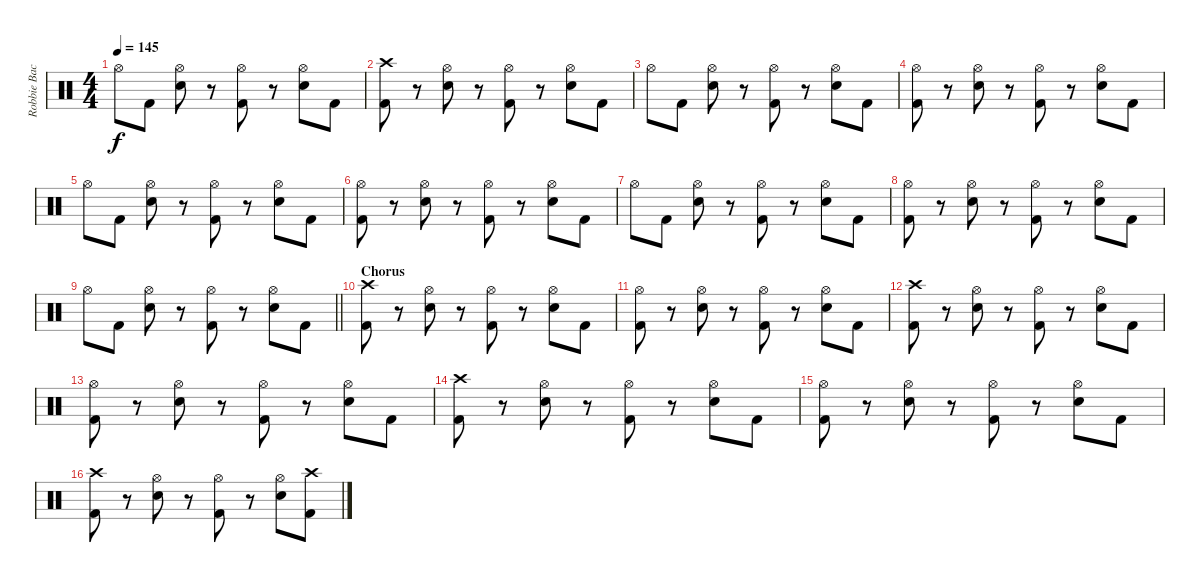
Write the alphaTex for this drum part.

\track ("Robbie Bachman" "Robbie Bac") {instrument percussion}
\staff {score}
\articulation defaults
\ts (4 4)
\tempo 145
\clef neutral
\ks c "Hi-Hat (open)".8{dy f} "Kick (hit) 2".8
("Hi-Hat (open)" "Snare (hit) 2").8 r.8 ("Hi-Hat (open)" "Kick (hit) 2").8 r.8 ("Hi-Hat (open)" "Snare (hit) 2").8 "Kick (hit) 2".8 |
("Crash high (hit)" "Kick (hit) 2").8 r.8 ("Hi-Hat (open)" "Snare (hit) 2").8 r.8 ("Hi-Hat (open)" "Kick (hit) 2").8 r.8 ("Hi-Hat (open)" "Snare (hit) 2").8 "Kick (hit) 2".8 |
"Hi-Hat (open)".8 "Kick (hit) 2".8 ("Hi-Hat (open)" "Snare (hit) 2").8 r.8 ("Hi-Hat (open)" "Kick (hit) 2").8 r.8 ("Hi-Hat (open)" "Snare (hit) 2").8 "Kick (hit) 2".8 |
("Hi-Hat (open)" "Kick (hit) 2").8 r.8 ("Hi-Hat (open)" "Snare (hit) 2").8 r.8 ("Hi-Hat (open)" "Kick (hit) 2").8 r.8 ("Hi-Hat (open)" "Snare (hit) 2").8 "Kick (hit) 2".8 |
"Hi-Hat (open)".8 "Kick (hit) 2".8 ("Hi-Hat (open)" "Snare (hit) 2").8 r.8 ("Hi-Hat (open)" "Kick (hit) 2").8 r.8 ("Hi-Hat (open)" "Snare (hit) 2").8 "Kick (hit) 2".8 |
("Hi-Hat (open)" "Kick (hit) 2").8 r.8 ("Hi-Hat (open)" "Snare (hit) 2").8 r.8 ("Hi-Hat (open)" "Kick (hit) 2").8 r.8 ("Hi-Hat (open)" "Snare (hit) 2").8 "Kick (hit) 2".8 |
"Hi-Hat (open)".8 "Kick (hit) 2".8 ("Hi-Hat (open)" "Snare (hit) 2").8 r.8 ("Hi-Hat (open)" "Kick (hit) 2").8 r.8 ("Hi-Hat (open)" "Snare (hit) 2").8 "Kick (hit) 2".8 |
("Hi-Hat (open)" "Kick (hit) 2").8 r.8 ("Hi-Hat (open)" "Snare (hit) 2").8 r.8 ("Hi-Hat (open)" "Kick (hit) 2").8 r.8 ("Hi-Hat (open)" "Snare (hit) 2").8 "Kick (hit) 2".8 |
\barLineRight lightlight "Hi-Hat (open)".8 "Kick (hit) 2".8
("Hi-Hat (open)" "Snare (hit) 2").8 r.8 ("Hi-Hat (open)" "Kick (hit) 2").8 r.8 ("Hi-Hat (open)" "Snare (hit) 2").8 "Kick (hit) 2".8 |
\section ("" "Chorus")
("Crash high (hit)" "Kick (hit) 2").8 r.8 ("Hi-Hat (open)" "Snare (hit) 2").8 r.8 ("Hi-Hat (open)" "Kick (hit) 2").8 r.8 ("Hi-Hat (open)" "Snare (hit) 2").8 "Kick (hit) 2".8 |
("Hi-Hat (open)" "Kick (hit) 2").8 r.8 ("Hi-Hat (open)" "Snare (hit) 2").8 r.8 ("Hi-Hat (open)" "Kick (hit) 2").8 r.8 ("Hi-Hat (open)" "Snare (hit) 2").8 "Kick (hit) 2".8 |
("Crash high (hit)" "Kick (hit) 2").8 r.8 ("Hi-Hat (open)" "Snare (hit) 2").8 r.8 ("Hi-Hat (open)" "Kick (hit) 2").8 r.8 ("Hi-Hat (open)" "Snare (hit) 2").8 "Kick (hit) 2".8 |
("Hi-Hat (open)" "Kick (hit) 2").8 r.8 ("Hi-Hat (open)" "Snare (hit) 2").8 r.8 ("Hi-Hat (open)" "Kick (hit) 2").8 r.8 ("Hi-Hat (open)" "Snare (hit) 2").8 "Kick (hit) 2".8 |
("Crash high (hit)" "Kick (hit) 2").8 r.8 ("Hi-Hat (open)" "Snare (hit) 2").8 r.8 ("Hi-Hat (open)" "Kick (hit) 2").8 r.8 ("Hi-Hat (open)" "Snare (hit) 2").8 "Kick (hit) 2".8 |
("Hi-Hat (open)" "Kick (hit) 2").8 r.8 ("Hi-Hat (open)" "Snare (hit) 2").8 r.8 ("Hi-Hat (open)" "Kick (hit) 2").8 r.8 ("Hi-Hat (open)" "Snare (hit) 2").8 "Kick (hit) 2".8 |
("Crash high (hit)" "Kick (hit) 2").8 r.8 ("Hi-Hat (open)" "Snare (hit) 2").8 r.8 ("Hi-Hat (open)" "Kick (hit) 2").8 r.8 ("Hi-Hat (open)" "Snare (hit) 2").8 ("Crash high (hit)" "Kick (hit) 2").8
